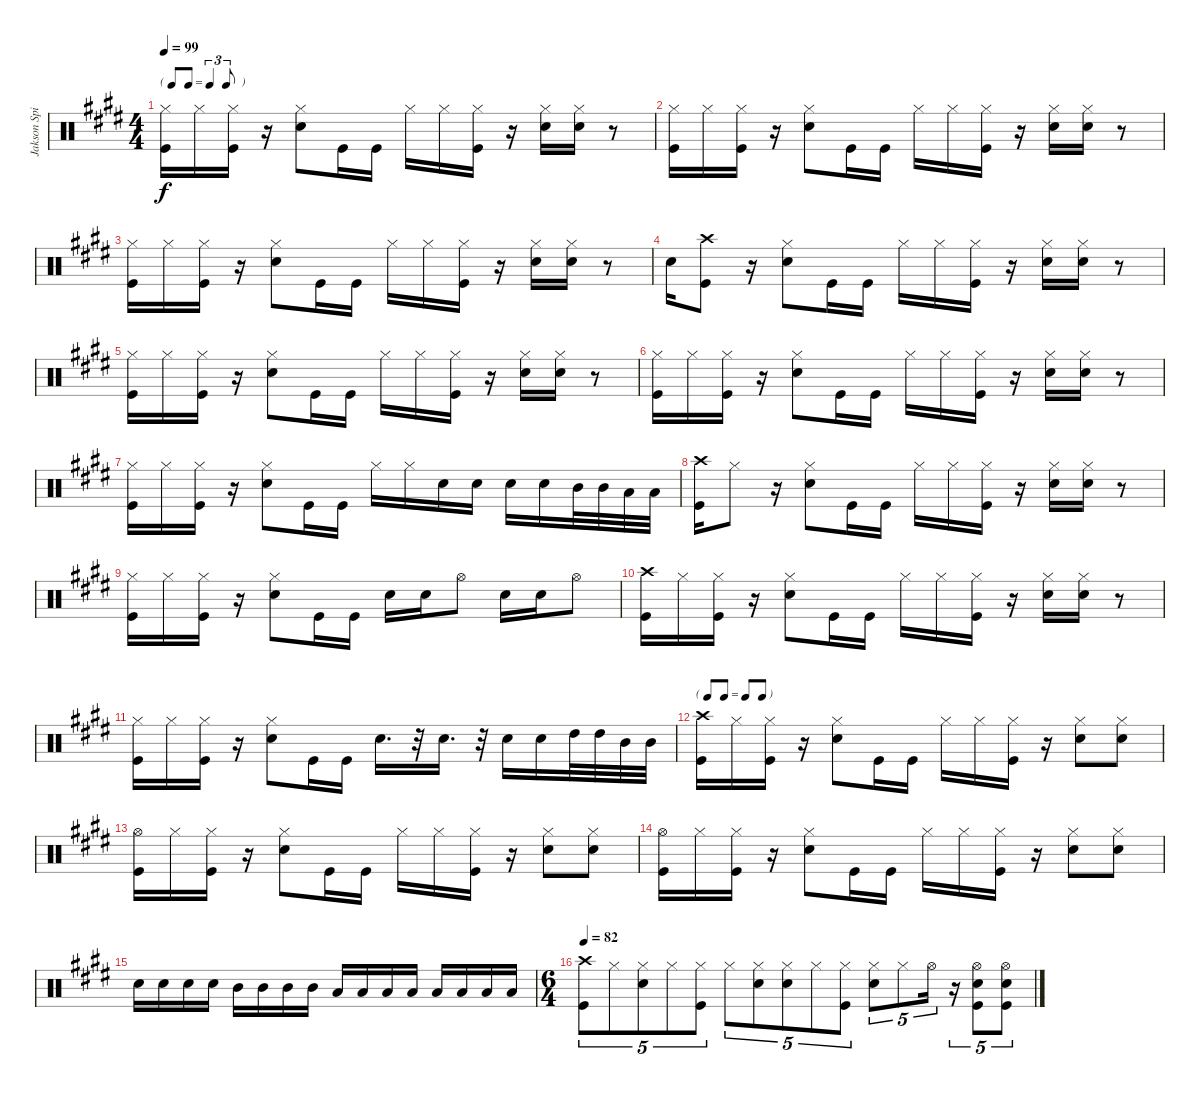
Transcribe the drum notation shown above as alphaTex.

\track ("Jakson Spires Drums" "Jakson Spi") {instrument percussion}
\staff {score}
\articulation defaults
\ts (4 4)
\tf triplet8th
\tempo 99
\clef neutral
\ks e
("Hi-Hat (closed)" "Kick (hit)").16{dy f} "Hi-Hat (closed)".16 ("Hi-Hat (closed)" "Kick (hit)").16 r.16 ("Hi-Hat (closed)" "Snare (hit) 2").8 "Kick (hit)".16 "Kick (hit)".16 "Hi-Hat (closed)".16 "Hi-Hat (closed)".16 ("Hi-Hat (closed)" "Kick (hit)").16 r.16 ("Hi-Hat (closed)" "Snare (hit) 2").16 ("Hi-Hat (closed)" "Snare (hit) 2").16 r.8 |
("Hi-Hat (closed)" "Kick (hit)").16 "Hi-Hat (closed)".16 ("Hi-Hat (closed)" "Kick (hit)").16 r.16 ("Hi-Hat (closed)" "Snare (hit) 2").8 "Kick (hit)".16 "Kick (hit)".16 "Hi-Hat (closed)".16 "Hi-Hat (closed)".16 ("Hi-Hat (closed)" "Kick (hit)").16 r.16 ("Hi-Hat (closed)" "Snare (hit) 2").16 ("Hi-Hat (closed)" "Snare (hit) 2").16 r.8 |
("Hi-Hat (closed)" "Kick (hit)").16 "Hi-Hat (closed)".16 ("Hi-Hat (closed)" "Kick (hit)").16 r.16 ("Hi-Hat (closed)" "Snare (hit) 2").8 "Kick (hit)".16 "Kick (hit)".16 "Hi-Hat (closed)".16 "Hi-Hat (closed)".16 ("Hi-Hat (closed)" "Kick (hit)").16 r.16 ("Hi-Hat (closed)" "Snare (hit) 2").16 ("Hi-Hat (closed)" "Snare (hit) 2").16 r.8 |
"Snare (hit) 2".16 ("Crash high (hit)" "Kick (hit)").8 r.16 ("Hi-Hat (closed)" "Snare (hit) 2").8 "Kick (hit)".16 "Kick (hit)".16 "Hi-Hat (closed)".16 "Hi-Hat (closed)".16 ("Hi-Hat (closed)" "Kick (hit)").16 r.16 ("Hi-Hat (closed)" "Snare (hit) 2").16 ("Hi-Hat (closed)" "Snare (hit) 2").16 r.8 |
("Hi-Hat (closed)" "Kick (hit)").16 "Hi-Hat (closed)".16 ("Hi-Hat (closed)" "Kick (hit)").16 r.16 ("Hi-Hat (closed)" "Snare (hit) 2").8 "Kick (hit)".16 "Kick (hit)".16 "Hi-Hat (closed)".16 "Hi-Hat (closed)".16 ("Hi-Hat (closed)" "Kick (hit)").16 r.16 ("Hi-Hat (closed)" "Snare (hit) 2").16 ("Hi-Hat (closed)" "Snare (hit) 2").16 r.8 |
("Hi-Hat (closed)" "Kick (hit)").16 "Hi-Hat (closed)".16 ("Hi-Hat (closed)" "Kick (hit)").16 r.16 ("Hi-Hat (closed)" "Snare (hit) 2").8 "Kick (hit)".16 "Kick (hit)".16 "Hi-Hat (closed)".16 "Hi-Hat (closed)".16 ("Hi-Hat (closed)" "Kick (hit)").16 r.16 ("Hi-Hat (closed)" "Snare (hit) 2").16 ("Hi-Hat (closed)" "Snare (hit) 2").16 r.8 |
("Hi-Hat (closed)" "Kick (hit)").16 "Hi-Hat (closed)".16 ("Hi-Hat (closed)" "Kick (hit)").16 r.16 ("Hi-Hat (closed)" "Snare (hit) 2").8 "Kick (hit)".16 "Kick (hit)".16 "Hi-Hat (closed)".16 "Hi-Hat (closed)".16 "Snare (hit) 2".16 "Snare (hit) 2".16 "Snare (hit) 2".16 "Snare (hit) 2".16 "Mid Tom (hit)".32 "Mid Tom (hit)".32 "Low Floor Tom (hit)".32 "Low Floor Tom (hit)".32 |
("Crash high (hit)" "Kick (hit)").16 "Hi-Hat (closed)".8 r.16 ("Hi-Hat (closed)" "Snare (hit) 2").8 "Kick (hit)".16 "Kick (hit)".16 "Hi-Hat (closed)".16 "Hi-Hat (closed)".16 ("Hi-Hat (closed)" "Kick (hit)").16 r.16 ("Hi-Hat (closed)" "Snare (hit) 2").16 ("Hi-Hat (closed)" "Snare (hit) 2").16 r.8 |
("Hi-Hat (closed)" "Kick (hit)").16 "Hi-Hat (closed)".16 ("Hi-Hat (closed)" "Kick (hit)").16 r.16 ("Hi-Hat (closed)" "Snare (hit) 2").8 "Kick (hit)".16 "Kick (hit)".16 "Snare (hit) 2".16 "Snare (hit) 2".16 "Hi-Hat (open)".8 "Snare (hit) 2".16 "Snare (hit) 2".16 "Hi-Hat (open)".8 |
("Crash high (hit)" "Kick (hit)").16 "Hi-Hat (closed)".16 ("Hi-Hat (closed)" "Kick (hit)").16 r.16 ("Hi-Hat (closed)" "Snare (hit) 2").8 "Kick (hit)".16 "Kick (hit)".16 "Hi-Hat (closed)".16 "Hi-Hat (closed)".16 ("Hi-Hat (closed)" "Kick (hit)").16 r.16 ("Hi-Hat (closed)" "Snare (hit) 2").16 ("Hi-Hat (closed)" "Snare (hit) 2").16 r.8 |
("Hi-Hat (closed)" "Kick (hit)").16 "Hi-Hat (closed)".16 ("Hi-Hat (closed)" "Kick (hit)").16 r.16 ("Hi-Hat (closed)" "Snare (hit) 2").8 "Kick (hit)".16 "Kick (hit)".16 "Snare (hit) 2".16{d} r.32 "Snare (hit) 2".16{d} r.32 "Snare (hit) 2".16 "Snare (hit) 2".16 "High Tom (hit)".32 "High Tom (hit)".32 "Mid Tom (hit)".32 "Mid Tom (hit)".32 |
\tf none
("Crash high (hit)" "Kick (hit)").16 "Hi-Hat (closed)".16 ("Hi-Hat (closed)" "Kick (hit)").16 r.16 ("Hi-Hat (closed)" "Snare (hit) 2").8 "Kick (hit)".16 "Kick (hit)".16 "Hi-Hat (closed)".16 "Hi-Hat (closed)".16 ("Hi-Hat (closed)" "Kick (hit)").16 r.16 ("Hi-Hat (closed)" "Snare (hit) 2").8 ("Hi-Hat (closed)" "Snare (hit) 2").8 |
("Hi-Hat (open)" "Kick (hit)").16 "Hi-Hat (closed)".16 ("Hi-Hat (closed)" "Kick (hit)").16 r.16 ("Hi-Hat (closed)" "Snare (hit) 2").8 "Kick (hit)".16 "Kick (hit)".16 "Hi-Hat (closed)".16 "Hi-Hat (closed)".16 ("Hi-Hat (closed)" "Kick (hit)").16 r.16 ("Hi-Hat (closed)" "Snare (hit) 2").8 ("Hi-Hat (closed)" "Snare (hit) 2").8 |
("Hi-Hat (open)" "Kick (hit)").16 "Hi-Hat (closed)".16 ("Hi-Hat (closed)" "Kick (hit)").16 r.16 ("Hi-Hat (closed)" "Snare (hit) 2").8 "Kick (hit)".16 "Kick (hit)".16 "Hi-Hat (closed)".16 "Hi-Hat (closed)".16 ("Hi-Hat (closed)" "Kick (hit)").16 r.16 ("Hi-Hat (closed)" "Snare (hit) 2").8 ("Hi-Hat (closed)" "Snare (hit) 2").8 |
"Snare (hit) 2".16 "Snare (hit) 2".16 "Snare (hit) 2".16 "Snare (hit) 2".16 "Mid Tom (hit)".16 "Mid Tom (hit)".16 "Mid Tom (hit)".16 "Mid Tom (hit)".16 "Low Tom (hit)".16 "Low Tom (hit)".16 "Low Tom (hit)".16 "Low Tom (hit)".16 "Low Floor Tom (hit)".16 "Low Floor Tom (hit)".16 "Low Floor Tom (hit)".16 "Low Floor Tom (hit)".16 |
\ts (6 4)
\tempo 82
("Crash high (hit)" "Kick (hit)").8{tu (5 4)} "Hi-Hat (closed)".8{tu (5 4)} ("Hi-Hat (closed)" "Snare (hit) 2").8{tu (5 4)} "Hi-Hat (closed)".8{tu (5 4)} ("Hi-Hat (closed)" "Kick (hit)").8{tu (5 4)} "Hi-Hat (closed)".8{tu (5 4)} ("Hi-Hat (closed)" "Snare (hit) 2").8{tu (5 4)} ("Hi-Hat (closed)" "Snare (hit) 2").8{tu (5 4)} "Hi-Hat (closed)".8{tu (5 4)} ("Hi-Hat (closed)" "Kick (hit)").8{tu (5 4)} ("Hi-Hat (closed)" "Snare (hit) 2").8{tu (5 4)} "Hi-Hat (closed)".8{tu (5 4)} "Hi-Hat (open)".16{tu (5 4)} r.16{tu (5 4)} ("Hi-Hat (open)" "Snare (hit) 2" "Kick (hit)").8{tu (5 4)} ("Hi-Hat (open)" "Snare (hit) 2" "Kick (hit)").8{tu (5 4)}
